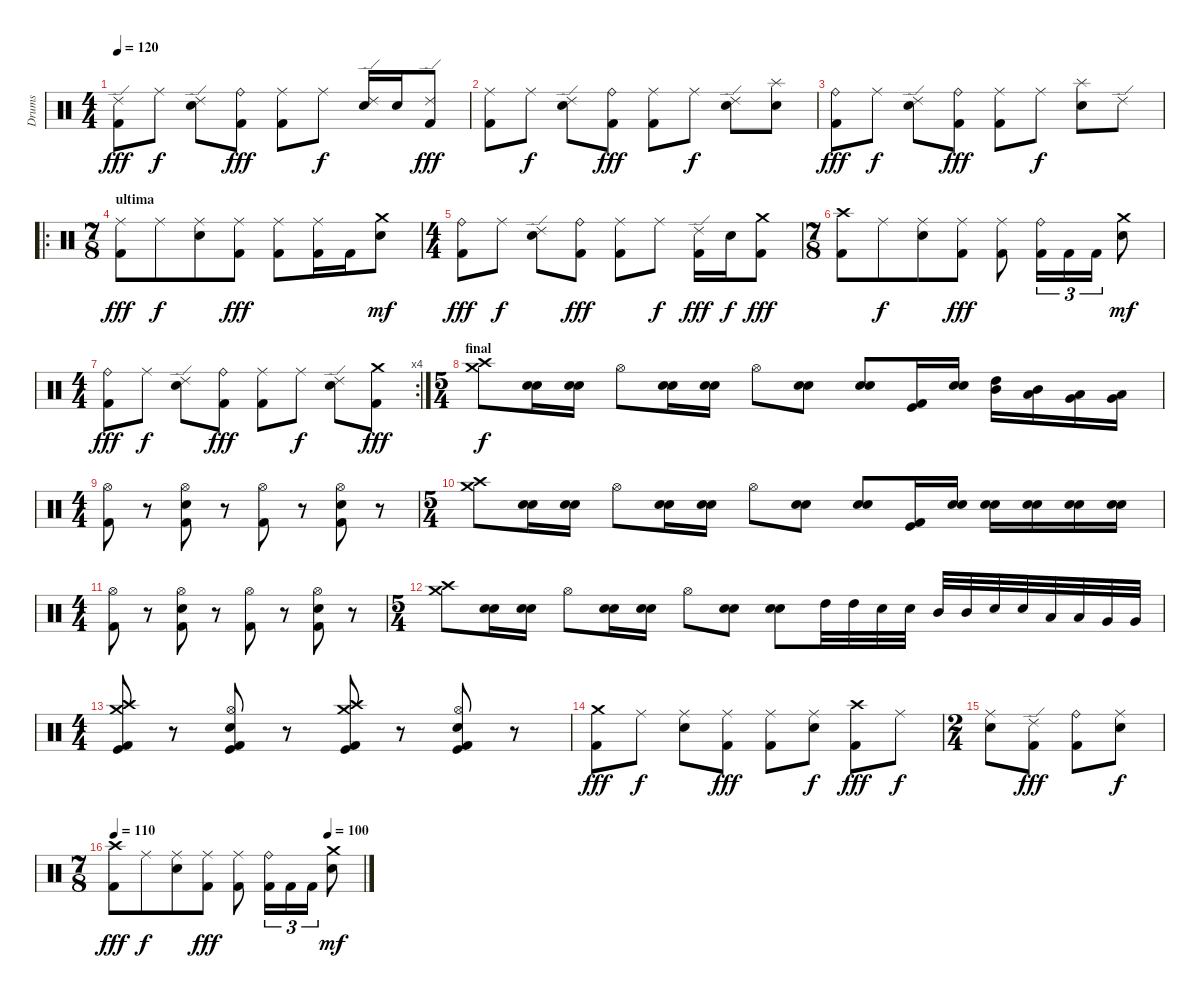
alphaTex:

\track ("Drums" "Drums") {instrument percussion}
\staff {score}
\articulation defaults
\ts (4 4)
\tempo 120
\clef neutral
\ks c
("Ride (edge) 2" "Kick (hit) 2").8{dy fff} "Ride (middle)".8{dy f} ("Ride (edge) 2" "Electric Snare (hit)").8 ("Ride (bell)" "Kick (hit) 2").8{dy fff} ("Ride (middle)" "Kick (hit) 2").8 "Ride (middle)".8{dy f} ("Ride (edge) 2" "Electric Snare (hit)").16 "Electric Snare (hit)".16 ("Ride (edge) 2" "Kick (hit) 2").8{dy fff} |
("Ride (middle)" "Kick (hit) 2").8 "Ride (middle)".8{dy f} ("Ride (edge) 2" "Electric Snare (hit)").8 ("Ride (bell)" "Kick (hit) 2").8{dy fff} ("Ride (middle)" "Kick (hit) 2").8 "Ride (middle)".8{dy f} ("Ride (edge) 2" "Electric Snare (hit)").8 ("Splash (hit)" "Electric Snare (hit)").8 |
("Ride (bell)" "Kick (hit) 2").8{dy fff} "Ride (middle)".8{dy f} ("Ride (edge) 2" "Electric Snare (hit)").8 ("Ride (bell)" "Kick (hit) 2").8{dy fff} ("Ride (middle)" "Kick (hit) 2").8 "Ride (middle)".8{dy f} ("Splash (hit)" "Electric Snare (hit)").8 "Ride (edge) 2".8 |
\ro
\ts (7 8)
\section ("" "ultima")
("Ride (middle)" "Kick (hit) 2").8{dy fff} "Ride (middle)".8{dy f} ("Ride (middle)" "Electric Snare (hit)").8 ("Ride (middle)" "Kick (hit) 2").8{dy fff} ("Ride (middle)" "Kick (hit) 2").8 ("Ride (middle)" "Kick (hit) 2").16 "Kick (hit) 2".16 ("Crash medium (hit)" "Electric Snare (hit)").8{dy mf} |
\ts (4 4)
("Ride (bell)" "Kick (hit) 2").8{dy fff} "Ride (middle)".8{dy f} ("Ride (edge) 2" "Electric Snare (hit)").8 ("Ride (bell)" "Kick (hit) 2").8{dy fff} ("Ride (middle)" "Kick (hit) 2").8 "Ride (middle)".8{dy f} ("Ride (edge) 2" "Kick (hit) 2").16{dy fff} "Electric Snare (hit)".16{dy f} ("Crash medium (hit)" "Kick (hit) 2").8{dy fff} |
\ts (7 8)
("Crash high (hit)" "Kick (hit) 2").8 "Ride (middle)".8{dy f} ("Ride (middle)" "Electric Snare (hit)").8 ("Ride (middle)" "Kick (hit) 2").8{dy fff} ("Ride (middle)" "Kick (hit) 2").8 ("Ride (bell)" "Kick (hit) 2").16{tu (3 2)} "Kick (hit) 2".16{tu (3 2)} "Kick (hit) 2".16{tu (3 2)} ("Crash medium (hit)" "Electric Snare (hit)").8{dy mf} |
\rc 4
\ts (4 4)
("Ride (bell)" "Kick (hit) 2").8{dy fff} "Ride (middle)".8{dy f} ("Ride (edge) 2" "Electric Snare (hit)").8 ("Ride (bell)" "Kick (hit) 2").8{dy fff} ("Ride (middle)" "Kick (hit) 2").8 "Ride (middle)".8{dy f} ("Ride (edge) 2" "Electric Snare (hit)").8 ("Crash medium (hit)" "Kick (hit) 2").8{dy fff} |
\ts (5 4)
\section ("" "final")
("Crash high (hit)" "Crash medium (hit)").8{dy f} ("Electric Snare (hit)" "Snare (hit) 2").16 ("Electric Snare (hit)" "Snare (hit) 2").16 "Hi-Hat (open)".8 ("Electric Snare (hit)" "Snare (hit) 2").16 ("Electric Snare (hit)" "Snare (hit) 2").16 "Hi-Hat (open)".8 ("Electric Snare (hit)" "Snare (hit) 2").8 ("Electric Snare (hit)" "Snare (hit) 2").8 ("Kick (hit) 2" "Kick (hit)").16 ("Electric Snare (hit)" "Snare (hit) 2").16 ("Mid Tom (hit)" "High Tom (hit)").16 ("Low Tom (hit)" "Mid Tom (hit)").16 ("Very Low Tom (hit)" "Low Tom (hit)").16 ("Low Floor Tom (hit)" "Very Low Tom (hit)").16 |
\ts (4 4)
("Kick (hit) 2" "Hi-Hat (open)").8 r.8 ("Kick (hit) 2" "Electric Snare (hit)" "Hi-Hat (open)").8 r.8 ("Kick (hit) 2" "Hi-Hat (open)").8 r.8 ("Kick (hit) 2" "Electric Snare (hit)" "Hi-Hat (open)").8 r.8 |
\ts (5 4)
("Crash high (hit)" "Crash medium (hit)").8 ("Electric Snare (hit)" "Snare (hit) 2").16 ("Electric Snare (hit)" "Snare (hit) 2").16 "Hi-Hat (open)".8 ("Electric Snare (hit)" "Snare (hit) 2").16 ("Electric Snare (hit)" "Snare (hit) 2").16 "Hi-Hat (open)".8 ("Electric Snare (hit)" "Snare (hit) 2").8 ("Electric Snare (hit)" "Snare (hit) 2").8 ("Kick (hit) 2" "Kick (hit)").16 ("Electric Snare (hit)" "Snare (hit) 2").16 ("Electric Snare (hit)" "Snare (hit) 2").16 ("Electric Snare (hit)" "Snare (hit) 2").16 ("Electric Snare (hit)" "Snare (hit) 2").16 ("Electric Snare (hit)" "Snare (hit) 2").16 |
\ts (4 4)
("Kick (hit) 2" "Hi-Hat (open)").8 r.8 ("Kick (hit) 2" "Electric Snare (hit)" "Hi-Hat (open)").8 r.8 ("Kick (hit) 2" "Hi-Hat (open)").8 r.8 ("Kick (hit) 2" "Electric Snare (hit)" "Hi-Hat (open)").8 r.8 |
\ts (5 4)
("Crash high (hit)" "Crash medium (hit)").8 ("Electric Snare (hit)" "Snare (hit) 2").16 ("Electric Snare (hit)" "Snare (hit) 2").16 "Hi-Hat (open)".8 ("Electric Snare (hit)" "Snare (hit) 2").16 ("Electric Snare (hit)" "Snare (hit) 2").16 "Hi-Hat (open)".8 ("Electric Snare (hit)" "Snare (hit) 2").8 ("Electric Snare (hit)" "Snare (hit) 2").8 "High Tom (hit)".32 "High Tom (hit)".32 "Electric Snare (hit)".32 "Electric Snare (hit)".32 "Mid Tom (hit)".32 "Mid Tom (hit)".32 "Electric Snare (hit)".32 "Electric Snare (hit)".32 "Low Tom (hit)".32 "Low Tom (hit)".32 "Very Low Tom (hit)".32 "Very Low Tom (hit)".32 |
\ts (4 4)
("Kick (hit) 2" "Kick (hit)" "Crash high (hit)" "Crash medium (hit)").8 r.8 ("Kick (hit) 2" "Kick (hit)" "Electric Snare (hit)" "Hi-Hat (open)").8 r.8 ("Kick (hit) 2" "Kick (hit)" "Crash high (hit)" "Crash medium (hit)").8 r.8 ("Kick (hit) 2" "Kick (hit)" "Electric Snare (hit)" "Hi-Hat (open)").8 r.8 |
("Crash medium (hit)" "Kick (hit) 2").8{dy fff} "Ride (middle)".8{dy f} ("Ride (middle)" "Electric Snare (hit)").8 ("Ride (middle)" "Kick (hit) 2").8{dy fff} ("Ride (middle)" "Kick (hit) 2").8 ("Ride (middle)" "Electric Snare (hit)").8{dy f} ("Crash high (hit)" "Kick (hit) 2").8{dy fff} "Ride (middle)".8{dy f} |
\ts (2 4)
("Ride (middle)" "Electric Snare (hit)").8 ("Ride (edge) 2" "Kick (hit) 2").8{dy fff} ("Ride (bell)" "Kick (hit) 2").8 ("Ride (middle)" "Electric Snare (hit)").8{dy f} |
\ts (7 8)
\tempo 110
\tempo (100 0.8571428571428571)
("Crash high (hit)" "Kick (hit) 2").8{dy fff} "Ride (middle)".8{dy f} ("Ride (middle)" "Electric Snare (hit)").8 ("Ride (middle)" "Kick (hit) 2").8{dy fff} ("Ride (middle)" "Kick (hit) 2").8 ("Ride (bell)" "Kick (hit) 2").16{tu (3 2)} "Kick (hit) 2".16{tu (3 2)} "Kick (hit) 2".16{tu (3 2)} ("Crash medium (hit)" "Electric Snare (hit)").8{dy mf}
